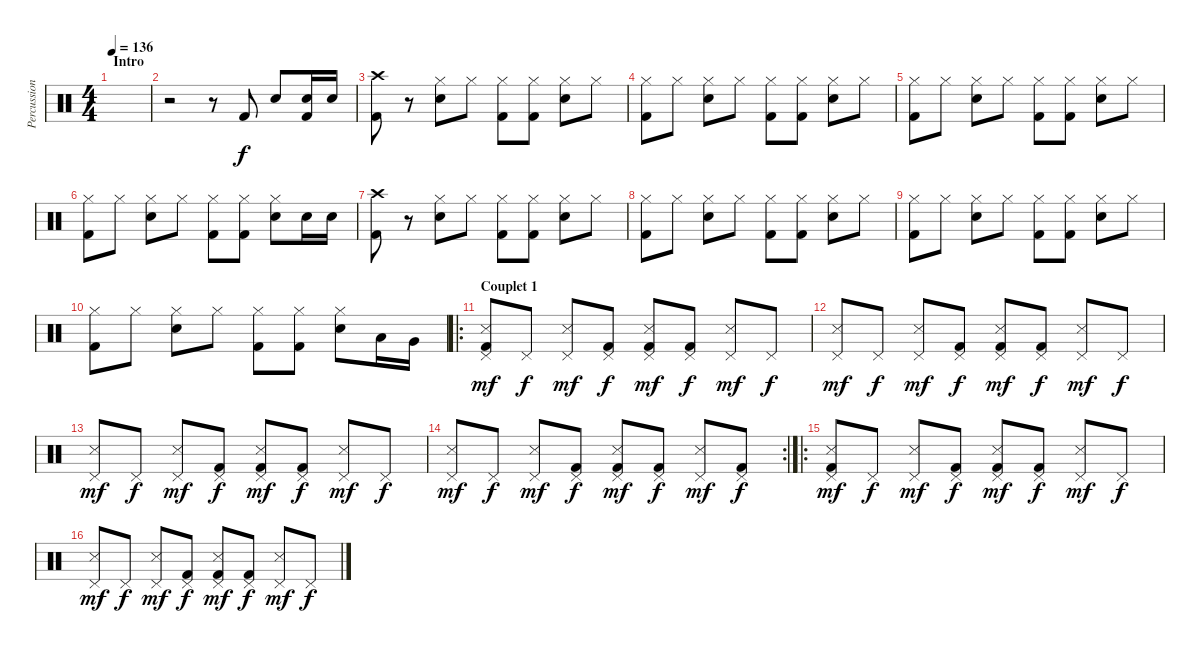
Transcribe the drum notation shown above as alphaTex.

\track ("Percussions" "Percussion") {instrument percussion}
\staff {score}
\articulation defaults
\ts (4 4)
\section ("" "Intro")
\tempo 136
\clef neutral
\ks c
|
r.2 r.8 "Kick (hit) 2".8 "Electric Snare (hit)".8 ("Snare (hit) 2" "Kick (hit) 2").16 "Electric Snare (hit)".16 |
("Crash high (hit)" "Kick (hit) 2").8 r.8 ("Hi-Hat (closed)" "Electric Snare (hit)").8 "Hi-Hat (closed)".8 ("Hi-Hat (closed)" "Kick (hit) 2").8 ("Hi-Hat (closed)" "Kick (hit) 2").8 ("Hi-Hat (closed)" "Electric Snare (hit)").8 "Hi-Hat (closed)".8 |
("Hi-Hat (closed)" "Kick (hit) 2").8 "Hi-Hat (closed)".8 ("Hi-Hat (closed)" "Electric Snare (hit)").8 "Hi-Hat (closed)".8 ("Hi-Hat (closed)" "Kick (hit) 2").8 ("Hi-Hat (closed)" "Kick (hit) 2").8 ("Hi-Hat (closed)" "Electric Snare (hit)").8 "Hi-Hat (closed)".8 |
("Hi-Hat (closed)" "Kick (hit) 2").8 "Hi-Hat (closed)".8 ("Hi-Hat (closed)" "Electric Snare (hit)").8 "Hi-Hat (closed)".8 ("Hi-Hat (closed)" "Kick (hit) 2").8 ("Hi-Hat (closed)" "Kick (hit) 2").8 ("Hi-Hat (closed)" "Electric Snare (hit)").8 "Hi-Hat (closed)".8 |
("Hi-Hat (closed)" "Kick (hit) 2").8 "Hi-Hat (closed)".8 ("Hi-Hat (closed)" "Electric Snare (hit)").8 "Hi-Hat (closed)".8 ("Hi-Hat (closed)" "Kick (hit) 2").8 ("Hi-Hat (closed)" "Kick (hit) 2").8 ("Hi-Hat (closed)" "Electric Snare (hit)").8 "Electric Snare (hit)".16 "Electric Snare (hit)".16 |
("Crash high (hit)" "Kick (hit) 2").8 r.8 ("Hi-Hat (closed)" "Electric Snare (hit)").8 "Hi-Hat (closed)".8 ("Hi-Hat (closed)" "Kick (hit) 2").8 ("Hi-Hat (closed)" "Kick (hit) 2").8 ("Hi-Hat (closed)" "Electric Snare (hit)").8 "Hi-Hat (closed)".8 |
("Hi-Hat (closed)" "Kick (hit) 2").8 "Hi-Hat (closed)".8 ("Hi-Hat (closed)" "Electric Snare (hit)").8 "Hi-Hat (closed)".8 ("Hi-Hat (closed)" "Kick (hit) 2").8 ("Hi-Hat (closed)" "Kick (hit) 2").8 ("Hi-Hat (closed)" "Electric Snare (hit)").8 "Hi-Hat (closed)".8 |
("Hi-Hat (closed)" "Kick (hit) 2").8 "Hi-Hat (closed)".8 ("Hi-Hat (closed)" "Electric Snare (hit)").8 "Hi-Hat (closed)".8 ("Hi-Hat (closed)" "Kick (hit) 2").8 ("Hi-Hat (closed)" "Kick (hit) 2").8 ("Hi-Hat (closed)" "Electric Snare (hit)").8 "Hi-Hat (closed)".8 |
("Hi-Hat (closed)" "Kick (hit) 2").8 "Hi-Hat (closed)".8 ("Hi-Hat (closed)" "Electric Snare (hit)").8 "Hi-Hat (closed)".8 ("Hi-Hat (closed)" "Kick (hit) 2").8 ("Hi-Hat (closed)" "Kick (hit) 2").8 ("Hi-Hat (closed)" "Electric Snare (hit)").8 "Low Tom (hit)".16 "Very Low Tom (hit)".16 |
\ro
\section ("" "Couplet 1")
("Pedal Hi-Hat (hit)" "Snare (side stick) 3" "Kick (hit) 2").8{dy mf} "Pedal Hi-Hat (hit)".8{dy f} ("Pedal Hi-Hat (hit)" "Snare (side stick) 3").8{dy mf} ("Pedal Hi-Hat (hit)" "Kick (hit) 2").8{dy f} ("Pedal Hi-Hat (hit)" "Snare (side stick) 3" "Kick (hit) 2").8{dy mf} ("Pedal Hi-Hat (hit)" "Kick (hit) 2").8{dy f} ("Pedal Hi-Hat (hit)" "Snare (side stick) 3").8{dy mf} "Pedal Hi-Hat (hit)".8{dy f} |
("Pedal Hi-Hat (hit)" "Snare (side stick) 3").8{dy mf} "Pedal Hi-Hat (hit)".8{dy f} ("Pedal Hi-Hat (hit)" "Snare (side stick) 3").8{dy mf} ("Pedal Hi-Hat (hit)" "Kick (hit) 2").8{dy f} ("Pedal Hi-Hat (hit)" "Snare (side stick) 3" "Kick (hit) 2").8{dy mf} ("Pedal Hi-Hat (hit)" "Kick (hit) 2").8{dy f} ("Pedal Hi-Hat (hit)" "Snare (side stick) 3").8{dy mf} "Pedal Hi-Hat (hit)".8{dy f} |
("Pedal Hi-Hat (hit)" "Snare (side stick) 3").8{dy mf} "Pedal Hi-Hat (hit)".8{dy f} ("Pedal Hi-Hat (hit)" "Snare (side stick) 3").8{dy mf} ("Pedal Hi-Hat (hit)" "Kick (hit) 2").8{dy f} ("Pedal Hi-Hat (hit)" "Snare (side stick) 3" "Kick (hit) 2").8{dy mf} ("Pedal Hi-Hat (hit)" "Kick (hit) 2").8{dy f} ("Pedal Hi-Hat (hit)" "Snare (side stick) 3").8{dy mf} "Pedal Hi-Hat (hit)".8{dy f} |
\rc 2
("Pedal Hi-Hat (hit)" "Snare (side stick) 3").8{dy mf} "Pedal Hi-Hat (hit)".8{dy f} ("Pedal Hi-Hat (hit)" "Snare (side stick) 3").8{dy mf} ("Pedal Hi-Hat (hit)" "Kick (hit) 2").8{dy f} ("Pedal Hi-Hat (hit)" "Snare (side stick) 3" "Kick (hit) 2").8{dy mf} ("Pedal Hi-Hat (hit)" "Kick (hit) 2").8{dy f} ("Pedal Hi-Hat (hit)" "Snare (side stick) 3").8{dy mf} ("Pedal Hi-Hat (hit)" "Kick (hit) 2").8{dy f} |
\ro
("Pedal Hi-Hat (hit)" "Snare (side stick) 3" "Kick (hit) 2").8{dy mf} "Pedal Hi-Hat (hit)".8{dy f} ("Pedal Hi-Hat (hit)" "Snare (side stick) 3").8{dy mf} ("Pedal Hi-Hat (hit)" "Kick (hit) 2").8{dy f} ("Pedal Hi-Hat (hit)" "Snare (side stick) 3" "Kick (hit) 2").8{dy mf} ("Pedal Hi-Hat (hit)" "Kick (hit) 2").8{dy f} ("Pedal Hi-Hat (hit)" "Snare (side stick) 3").8{dy mf} "Pedal Hi-Hat (hit)".8{dy f} |
("Pedal Hi-Hat (hit)" "Snare (side stick) 3").8{dy mf} "Pedal Hi-Hat (hit)".8{dy f} ("Pedal Hi-Hat (hit)" "Snare (side stick) 3").8{dy mf} ("Pedal Hi-Hat (hit)" "Kick (hit) 2").8{dy f} ("Pedal Hi-Hat (hit)" "Snare (side stick) 3" "Kick (hit) 2").8{dy mf} ("Pedal Hi-Hat (hit)" "Kick (hit) 2").8{dy f} ("Pedal Hi-Hat (hit)" "Snare (side stick) 3").8{dy mf} "Pedal Hi-Hat (hit)".8{dy f}
